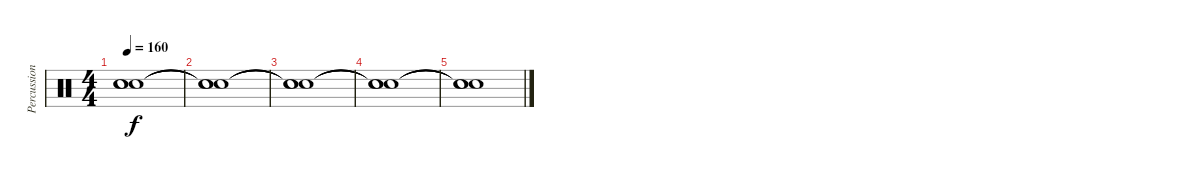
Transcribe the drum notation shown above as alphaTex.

\track ("Percussion" "Percussion") {instrument percussion}
\staff {score}
\articulation defaults
\ts (4 4)
\tempo 160
\clef neutral
\ks c
("Snare (hit)"{t} "Snare (hit)"{t} "Snare (hit)"{t}).1{dy f} |
("Snare (hit)"{t} "Snare (hit)"{t} "Snare (hit)"{t}).1 |
("Snare (hit)"{t} "Snare (hit)"{t} "Snare (hit)"{t}).1 |
("Snare (hit)"{t} "Snare (hit)"{t} "Snare (hit)"{t}).1 |
("Snare (hit)"{t} "Snare (hit)"{t} "Snare (hit)"{t}).1
